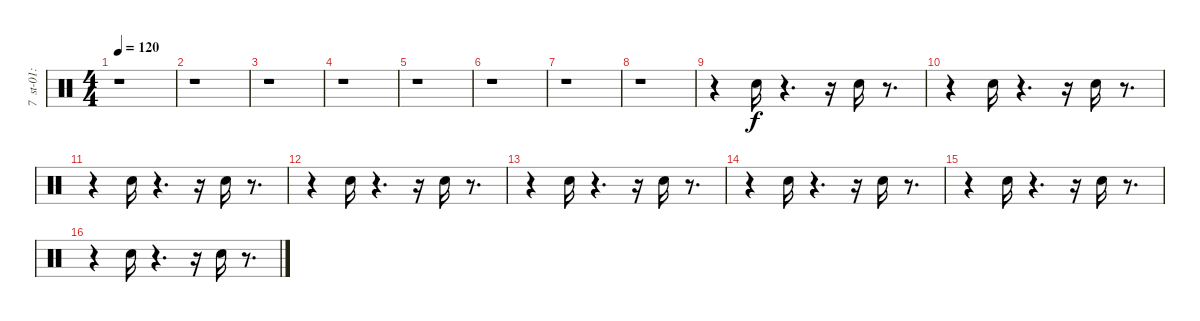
\track (" 7  st-01:claps1" " 7  st-01:") {instrument percussion}
\staff {score}
\articulation defaults
\ts (4 4)
\tempo 120
\clef neutral
\ks c
r.1{dy f} |
r.1 |
r.1 |
r.1 |
r.1 |
r.1 |
r.1 |
r.1 |
r.4 "Hand Clap (hit)".16 r.4{d} r.16 "Hand Clap (hit)".16 r.8{d} |
r.4 "Hand Clap (hit)".16 r.4{d} r.16 "Hand Clap (hit)".16 r.8{d} |
r.4 "Hand Clap (hit)".16 r.4{d} r.16 "Hand Clap (hit)".16 r.8{d} |
r.4 "Hand Clap (hit)".16 r.4{d} r.16 "Hand Clap (hit)".16 r.8{d} |
r.4 "Hand Clap (hit)".16 r.4{d} r.16 "Hand Clap (hit)".16 r.8{d} |
r.4 "Hand Clap (hit)".16 r.4{d} r.16 "Hand Clap (hit)".16 r.8{d} |
r.4 "Hand Clap (hit)".16 r.4{d} r.16 "Hand Clap (hit)".16 r.8{d} |
r.4 "Hand Clap (hit)".16 r.4{d} r.16 "Hand Clap (hit)".16 r.8{d}
